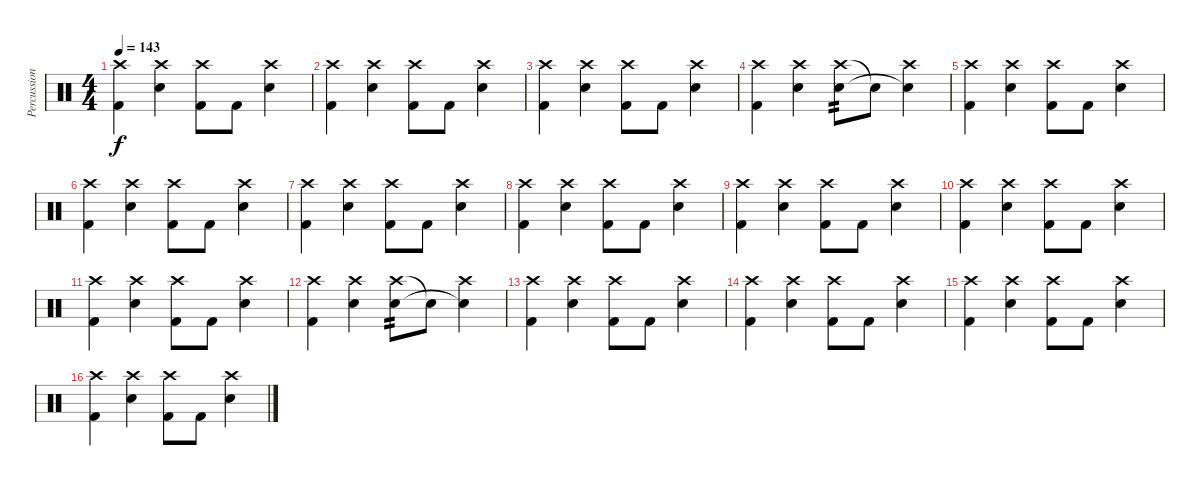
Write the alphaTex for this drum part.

\track ("Percussion" "Percussion") {instrument percussion}
\staff {score}
\articulation defaults
\ts (4 4)
\tempo 143
\clef neutral
\ks c
("Crash high (hit)" "Kick (hit) 2").4{dy f} ("Crash high (hit)" "Electric Snare (hit)").4 ("Crash high (hit)" "Kick (hit) 2").8 "Kick (hit) 2".8 ("Crash high (hit)" "Electric Snare (hit)").4 |
("Crash high (hit)" "Kick (hit) 2").4 ("Crash high (hit)" "Electric Snare (hit)").4 ("Crash high (hit)" "Kick (hit) 2").8 "Kick (hit) 2".8 ("Crash high (hit)" "Electric Snare (hit)").4 |
("Crash high (hit)" "Kick (hit) 2").4 ("Crash high (hit)" "Electric Snare (hit)").4 ("Crash high (hit)" "Kick (hit) 2").8 "Kick (hit) 2".8 ("Crash high (hit)" "Electric Snare (hit)").4 |
("Crash high (hit)" "Kick (hit) 2").4 ("Crash high (hit)" "Electric Snare (hit)").4 ("Crash high (hit)" "Electric Snare (hit)").8{tp 2} "Snare (hit)"{t}.8 ("Crash high (hit)" "Snare (hit)"{t}).4 |
("Crash high (hit)" "Kick (hit) 2").4 ("Crash high (hit)" "Electric Snare (hit)").4 ("Crash high (hit)" "Kick (hit) 2").8 "Kick (hit) 2".8 ("Crash high (hit)" "Electric Snare (hit)").4 |
("Crash high (hit)" "Kick (hit) 2").4 ("Crash high (hit)" "Electric Snare (hit)").4 ("Crash high (hit)" "Kick (hit) 2").8 "Kick (hit) 2".8 ("Crash high (hit)" "Electric Snare (hit)").4 |
("Crash high (hit)" "Kick (hit) 2").4 ("Crash high (hit)" "Electric Snare (hit)").4 ("Crash high (hit)" "Kick (hit) 2").8 "Kick (hit) 2".8 ("Crash high (hit)" "Electric Snare (hit)").4 |
("Crash high (hit)" "Kick (hit) 2").4 ("Crash high (hit)" "Electric Snare (hit)").4 ("Crash high (hit)" "Kick (hit) 2").8 "Kick (hit) 2".8 ("Crash high (hit)" "Electric Snare (hit)").4 |
("Crash high (hit)" "Kick (hit) 2").4 ("Crash high (hit)" "Electric Snare (hit)").4 ("Crash high (hit)" "Kick (hit) 2").8 "Kick (hit) 2".8 ("Crash high (hit)" "Electric Snare (hit)").4 |
("Crash high (hit)" "Kick (hit) 2").4 ("Crash high (hit)" "Electric Snare (hit)").4 ("Crash high (hit)" "Kick (hit) 2").8 "Kick (hit) 2".8 ("Crash high (hit)" "Electric Snare (hit)").4 |
("Crash high (hit)" "Kick (hit) 2").4 ("Crash high (hit)" "Electric Snare (hit)").4 ("Crash high (hit)" "Kick (hit) 2").8 "Kick (hit) 2".8 ("Crash high (hit)" "Electric Snare (hit)").4 |
("Crash high (hit)" "Kick (hit) 2").4 ("Crash high (hit)" "Electric Snare (hit)").4 ("Crash high (hit)" "Electric Snare (hit)").8{tp 2} "Snare (hit)"{t}.8 ("Crash high (hit)" "Snare (hit)"{t}).4 |
("Crash high (hit)" "Kick (hit) 2").4 ("Crash high (hit)" "Electric Snare (hit)").4 ("Crash high (hit)" "Kick (hit) 2").8 "Kick (hit) 2".8 ("Crash high (hit)" "Electric Snare (hit)").4 |
("Crash high (hit)" "Kick (hit) 2").4 ("Crash high (hit)" "Electric Snare (hit)").4 ("Crash high (hit)" "Kick (hit) 2").8 "Kick (hit) 2".8 ("Crash high (hit)" "Electric Snare (hit)").4 |
("Crash high (hit)" "Kick (hit) 2").4 ("Crash high (hit)" "Electric Snare (hit)").4 ("Crash high (hit)" "Kick (hit) 2").8 "Kick (hit) 2".8 ("Crash high (hit)" "Electric Snare (hit)").4 |
("Crash high (hit)" "Kick (hit) 2").4 ("Crash high (hit)" "Electric Snare (hit)").4 ("Crash high (hit)" "Kick (hit) 2").8 "Kick (hit) 2".8 ("Crash high (hit)" "Electric Snare (hit)").4
